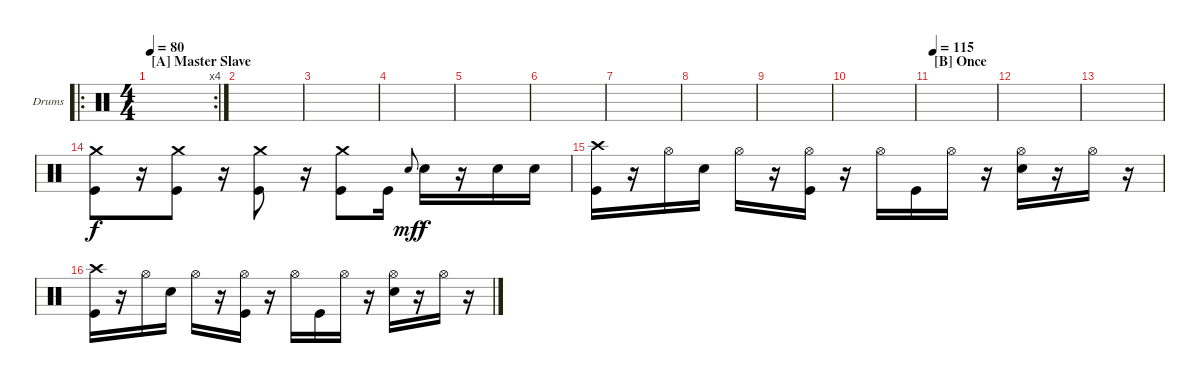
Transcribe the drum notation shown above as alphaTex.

\defaultSystemsLayout 4
\bracketExtendMode nobrackets
\firstSystemTrackNameOrientation horizontal
\otherSystemsTrackNameOrientation horizontal
\track ("Dave Krusen" "Drums") {instrument percussion}
\staff {score}
\articulation defaults
\ro
\rc 4
\ts (4 4)
\section ("A" "Master Slave")
\tempo 80
\clef neutral
\ks c
|
|
|
|
|
|
|
|
|
|
\section ("B" "Once")
\tempo 115
|
|
|
("Crash medium (hit)" "Kick (hit)").8 r.16 ("Crash medium (hit)" "Kick (hit)").8 r.16 ("Crash medium (hit)" "Kick (hit)").8 r.16 ("Crash medium (hit)" "Kick (hit)").8 "Kick (hit)".16 "Snare (hit) 2".8{gr onbeat dy mf} "Snare (hit) 2".16{dy f} r.16 "Snare (hit) 2".16 "Snare (hit) 2".16 |
("Crash high (hit)" "Kick (hit)").16 r.16 "Hi-Hat (open)".16 "Snare (hit) 2".16 "Hi-Hat (open)".16 r.16 ("Hi-Hat (open)" "Kick (hit)").16 r.16 "Hi-Hat (open)".16 "Kick (hit)".16 "Hi-Hat (open)".16 r.16 ("Hi-Hat (open)" "Snare (hit) 2").16 r.16 "Hi-Hat (open)".16 r.16 |
("Crash high (hit)" "Kick (hit)").16 r.16 "Hi-Hat (open)".16 "Snare (hit) 2".16 "Hi-Hat (open)".16 r.16 ("Hi-Hat (open)" "Kick (hit)").16 r.16 "Hi-Hat (open)".16 "Kick (hit)".16 "Hi-Hat (open)".16 r.16 ("Hi-Hat (open)" "Snare (hit) 2").16 r.16 "Hi-Hat (open)".16 r.16
